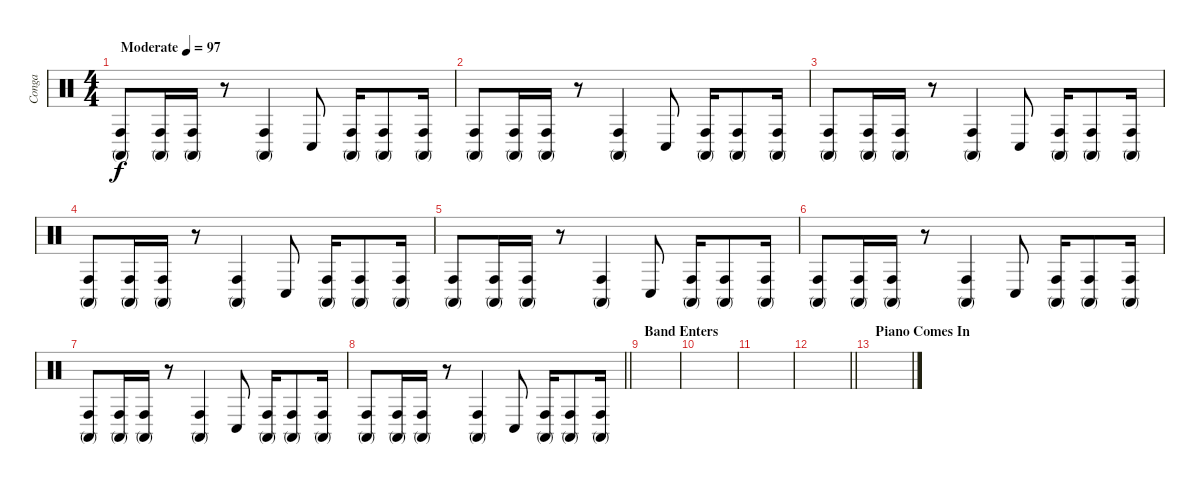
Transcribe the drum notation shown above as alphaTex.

\track ("Conga" "Conga") {instrument percussion}
\staff {score}
\articulation defaults
\ts (4 4)
\tempo (97 "Moderate")
\clef neutral
\ks c
("Conga high (hit)" "Conga high (mute)").8{dy f} ("Conga high (hit)" "Conga high (mute)").16 ("Conga high (hit)" "Conga high (mute)").16 r.8 ("Conga high (hit)" "Conga high (mute)").4 "Conga low (hit)".8 ("Conga high (hit)" "Conga high (mute)").16 ("Conga high (hit)" "Conga high (mute)").8 ("Conga high (hit)" "Conga high (mute)").16 |
("Conga high (hit)" "Conga high (mute)").8 ("Conga high (hit)" "Conga high (mute)").16 ("Conga high (hit)" "Conga high (mute)").16 r.8 ("Conga high (hit)" "Conga high (mute)").4 "Conga low (hit)".8 ("Conga high (hit)" "Conga high (mute)").16 ("Conga high (hit)" "Conga high (mute)").8 ("Conga high (hit)" "Conga high (mute)").16 |
("Conga high (hit)" "Conga high (mute)").8 ("Conga high (hit)" "Conga high (mute)").16 ("Conga high (hit)" "Conga high (mute)").16 r.8 ("Conga high (hit)" "Conga high (mute)").4 "Conga low (hit)".8 ("Conga high (hit)" "Conga high (mute)").16 ("Conga high (hit)" "Conga high (mute)").8 ("Conga high (hit)" "Conga high (mute)").16 |
("Conga high (hit)" "Conga high (mute)").8 ("Conga high (hit)" "Conga high (mute)").16 ("Conga high (hit)" "Conga high (mute)").16 r.8 ("Conga high (hit)" "Conga high (mute)").4 "Conga low (hit)".8 ("Conga high (hit)" "Conga high (mute)").16 ("Conga high (hit)" "Conga high (mute)").8 ("Conga high (hit)" "Conga high (mute)").16 |
("Conga high (hit)" "Conga high (mute)").8 ("Conga high (hit)" "Conga high (mute)").16 ("Conga high (hit)" "Conga high (mute)").16 r.8 ("Conga high (hit)" "Conga high (mute)").4 "Conga low (hit)".8 ("Conga high (hit)" "Conga high (mute)").16 ("Conga high (hit)" "Conga high (mute)").8 ("Conga high (hit)" "Conga high (mute)").16 |
("Conga high (hit)" "Conga high (mute)").8 ("Conga high (hit)" "Conga high (mute)").16 ("Conga high (hit)" "Conga high (mute)").16 r.8 ("Conga high (hit)" "Conga high (mute)").4 "Conga low (hit)".8 ("Conga high (hit)" "Conga high (mute)").16 ("Conga high (hit)" "Conga high (mute)").8 ("Conga high (hit)" "Conga high (mute)").16 |
("Conga high (hit)" "Conga high (mute)").8 ("Conga high (hit)" "Conga high (mute)").16 ("Conga high (hit)" "Conga high (mute)").16 r.8 ("Conga high (hit)" "Conga high (mute)").4 "Conga low (hit)".8 ("Conga high (hit)" "Conga high (mute)").16 ("Conga high (hit)" "Conga high (mute)").8 ("Conga high (hit)" "Conga high (mute)").16 |
\barLineRight lightlight
("Conga high (hit)" "Conga high (mute)").8 ("Conga high (hit)" "Conga high (mute)").16 ("Conga high (hit)" "Conga high (mute)").16 r.8 ("Conga high (hit)" "Conga high (mute)").4 "Conga low (hit)".8 ("Conga high (hit)" "Conga high (mute)").16 ("Conga high (hit)" "Conga high (mute)").8 ("Conga high (hit)" "Conga high (mute)").16 |
\section ("" "Band Enters")
|
|
|
\barLineRight lightlight
|
\section ("" "Piano Comes In")
